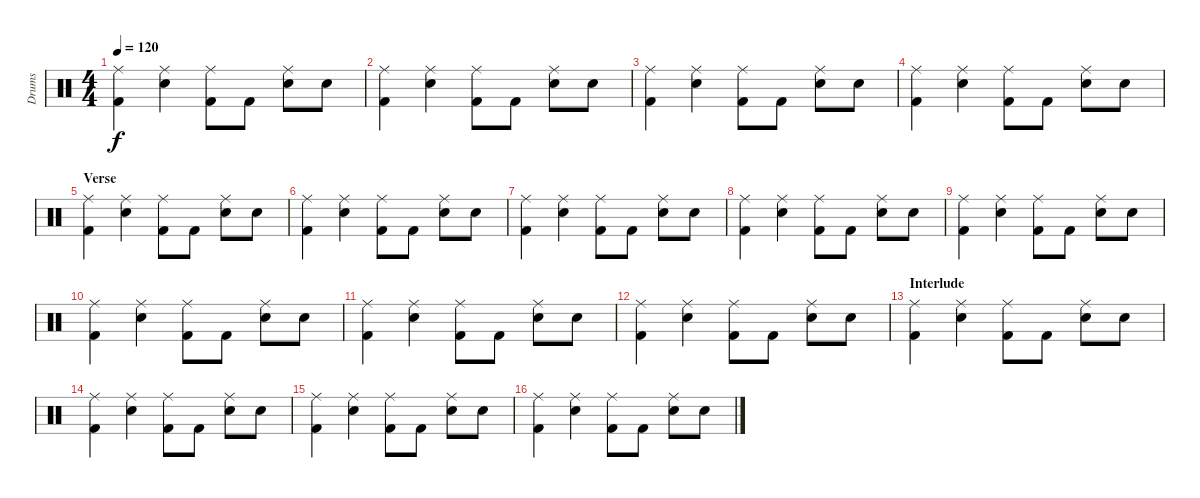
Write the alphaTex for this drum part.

\track ("Drums" "Drums") {instrument percussion}
\staff {score}
\articulation defaults
\ts (4 4)
\tempo 120
\clef neutral
\ks c
("Ride (middle)" "Kick (hit) 2").4{dy f} ("Ride (middle)" "Snare (hit) 2").4 ("Ride (middle)" "Kick (hit) 2").8 "Kick (hit) 2".8 ("Ride (middle)" "Snare (hit) 2").8 "Snare (hit) 2".8 |
("Ride (middle)" "Kick (hit) 2").4 ("Ride (middle)" "Snare (hit) 2").4 ("Ride (middle)" "Kick (hit) 2").8 "Kick (hit) 2".8 ("Ride (middle)" "Snare (hit) 2").8 "Snare (hit) 2".8 |
("Ride (middle)" "Kick (hit) 2").4 ("Ride (middle)" "Snare (hit) 2").4 ("Ride (middle)" "Kick (hit) 2").8 "Kick (hit) 2".8 ("Ride (middle)" "Snare (hit) 2").8 "Snare (hit) 2".8 |
("Ride (middle)" "Kick (hit) 2").4 ("Ride (middle)" "Snare (hit) 2").4 ("Ride (middle)" "Kick (hit) 2").8 "Kick (hit) 2".8 ("Ride (middle)" "Snare (hit) 2").8 "Snare (hit) 2".8 |
\section ("" "Verse")
("Ride (middle)" "Kick (hit) 2").4 ("Ride (middle)" "Snare (hit) 2").4 ("Ride (middle)" "Kick (hit) 2").8 "Kick (hit) 2".8 ("Ride (middle)" "Snare (hit) 2").8 "Snare (hit) 2".8 |
("Ride (middle)" "Kick (hit) 2").4 ("Ride (middle)" "Snare (hit) 2").4 ("Ride (middle)" "Kick (hit) 2").8 "Kick (hit) 2".8 ("Ride (middle)" "Snare (hit) 2").8 "Snare (hit) 2".8 |
("Ride (middle)" "Kick (hit) 2").4 ("Ride (middle)" "Snare (hit) 2").4 ("Ride (middle)" "Kick (hit) 2").8 "Kick (hit) 2".8 ("Ride (middle)" "Snare (hit) 2").8 "Snare (hit) 2".8 |
("Ride (middle)" "Kick (hit) 2").4 ("Ride (middle)" "Snare (hit) 2").4 ("Ride (middle)" "Kick (hit) 2").8 "Kick (hit) 2".8 ("Ride (middle)" "Snare (hit) 2").8 "Snare (hit) 2".8 |
("Ride (middle)" "Kick (hit) 2").4 ("Ride (middle)" "Snare (hit) 2").4 ("Ride (middle)" "Kick (hit) 2").8 "Kick (hit) 2".8 ("Ride (middle)" "Snare (hit) 2").8 "Snare (hit) 2".8 |
("Ride (middle)" "Kick (hit) 2").4 ("Ride (middle)" "Snare (hit) 2").4 ("Ride (middle)" "Kick (hit) 2").8 "Kick (hit) 2".8 ("Ride (middle)" "Snare (hit) 2").8 "Snare (hit) 2".8 |
("Ride (middle)" "Kick (hit) 2").4 ("Ride (middle)" "Snare (hit) 2").4 ("Ride (middle)" "Kick (hit) 2").8 "Kick (hit) 2".8 ("Ride (middle)" "Snare (hit) 2").8 "Snare (hit) 2".8 |
("Ride (middle)" "Kick (hit) 2").4 ("Ride (middle)" "Snare (hit) 2").4 ("Ride (middle)" "Kick (hit) 2").8 "Kick (hit) 2".8 ("Ride (middle)" "Snare (hit) 2").8 "Snare (hit) 2".8 |
\section ("" "Interlude")
("Ride (middle)" "Kick (hit) 2").4 ("Ride (middle)" "Snare (hit) 2").4 ("Ride (middle)" "Kick (hit) 2").8 "Kick (hit) 2".8 ("Ride (middle)" "Snare (hit) 2").8 "Snare (hit) 2".8 |
("Ride (middle)" "Kick (hit) 2").4 ("Ride (middle)" "Snare (hit) 2").4 ("Ride (middle)" "Kick (hit) 2").8 "Kick (hit) 2".8 ("Ride (middle)" "Snare (hit) 2").8 "Snare (hit) 2".8 |
("Ride (middle)" "Kick (hit) 2").4 ("Ride (middle)" "Snare (hit) 2").4 ("Ride (middle)" "Kick (hit) 2").8 "Kick (hit) 2".8 ("Ride (middle)" "Snare (hit) 2").8 "Snare (hit) 2".8 |
("Ride (middle)" "Kick (hit) 2").4 ("Ride (middle)" "Snare (hit) 2").4 ("Ride (middle)" "Kick (hit) 2").8 "Kick (hit) 2".8 ("Ride (middle)" "Snare (hit) 2").8 "Snare (hit) 2".8
